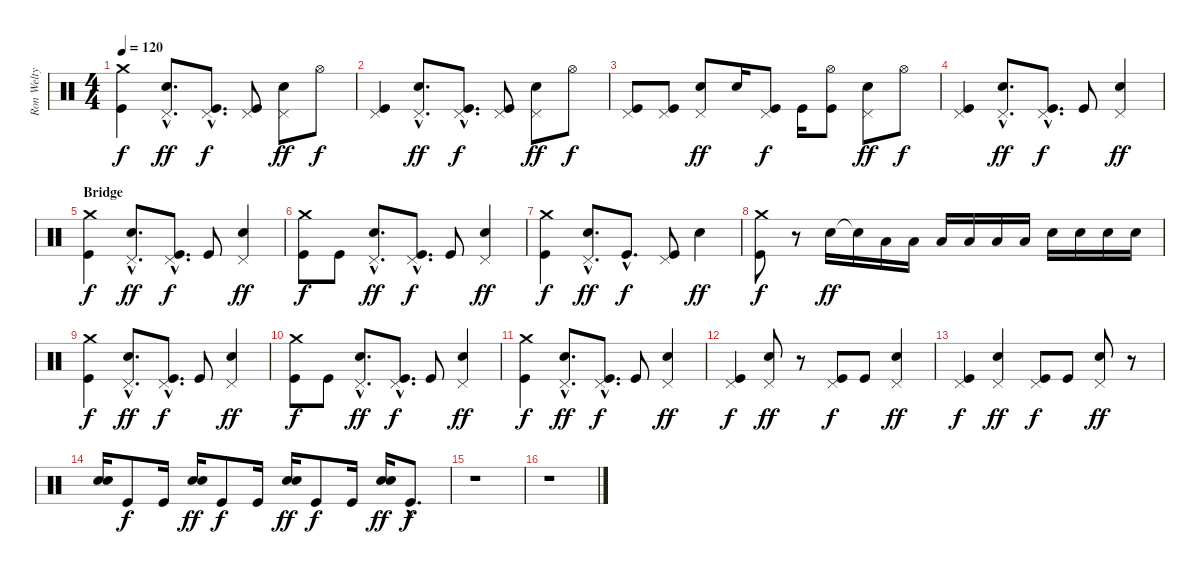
\track ("Ron Welty" "Ron Welty") {instrument percussion}
\staff {score}
\articulation defaults
\ts (4 4)
\tempo 120
\clef neutral
\ks c
("Crash medium (hit)" "Kick (hit)").4{dy f} ("Pedal Hi-Hat (hit)"{hac} "Snare (hit) 2"{hac}).8{d dy ff} ("Pedal Hi-Hat (hit)"{hac} "Kick (hit)"{hac}).8{d dy f} ("Pedal Hi-Hat (hit)" "Kick (hit)").8 ("Pedal Hi-Hat (hit)" "Snare (hit) 2").8{dy ff} "Hi-Hat (open)".8{dy f} |
("Pedal Hi-Hat (hit)" "Kick (hit)").4 ("Pedal Hi-Hat (hit)"{hac} "Snare (hit) 2"{hac}).8{d dy ff} ("Pedal Hi-Hat (hit)"{hac} "Kick (hit)"{hac}).8{d dy f} ("Pedal Hi-Hat (hit)" "Kick (hit)").8 ("Pedal Hi-Hat (hit)" "Snare (hit) 2").8{dy ff} "Hi-Hat (open)".8{dy f} |
("Pedal Hi-Hat (hit)" "Kick (hit)").8 ("Pedal Hi-Hat (hit)" "Kick (hit)").8 ("Pedal Hi-Hat (hit)" "Snare (hit) 2").8{dy ff} "Snare (hit) 2".16 ("Pedal Hi-Hat (hit)" "Kick (hit)").8{dy f} "Kick (hit)".16 ("Hi-Hat (open)" "Kick (hit)").8 ("Pedal Hi-Hat (hit)" "Snare (hit) 2").8{dy ff} "Hi-Hat (open)".8{dy f} |
("Pedal Hi-Hat (hit)" "Kick (hit)").4 ("Pedal Hi-Hat (hit)"{hac} "Snare (hit) 2"{hac}).8{d dy ff} ("Pedal Hi-Hat (hit)"{hac} "Kick (hit)"{hac}).8{d dy f} "Kick (hit)".8 ("Pedal Hi-Hat (hit)" "Snare (hit) 2").4{dy ff} |
\section ("" "Bridge")
("Crash medium (hit)" "Kick (hit)").4{dy f} ("Pedal Hi-Hat (hit)"{hac} "Snare (hit) 2"{hac}).8{d dy ff} ("Pedal Hi-Hat (hit)"{hac} "Kick (hit)"{hac}).8{d dy f} "Kick (hit)".8 ("Pedal Hi-Hat (hit)" "Snare (hit) 2").4{dy ff} |
("Crash medium (hit)" "Kick (hit)").8{dy f} "Kick (hit)".8 ("Pedal Hi-Hat (hit)"{hac} "Snare (hit) 2"{hac}).8{d dy ff} ("Pedal Hi-Hat (hit)"{hac} "Kick (hit)"{hac}).8{d dy f} "Kick (hit)".8 ("Pedal Hi-Hat (hit)" "Snare (hit) 2").4{dy ff} |
("Crash medium (hit)" "Kick (hit)").4{dy f} ("Pedal Hi-Hat (hit)"{hac} "Snare (hit) 2"{hac}).8{d dy ff} "Kick (hit)"{hac}.8{d dy f} ("Pedal Hi-Hat (hit)" "Kick (hit)").8 "Snare (hit) 2".4{dy ff} |
("Crash medium (hit)" "Kick (hit)").8{dy f} r.8 "Snare (hit) 2".16{dy ff} "Snare (hit) 2"{t}.16 "Low Tom (hit)".16 "Low Tom (hit)".16 "Low Tom (hit)".16 "Low Floor Tom (hit)".16 "Low Floor Tom (hit)".16 "Low Floor Tom (hit)".16 "Snare (hit) 2".16 "Snare (hit) 2".16 "Snare (hit) 2".16 "Snare (hit) 2".16 |
("Crash medium (hit)" "Kick (hit)").4{dy f} ("Pedal Hi-Hat (hit)"{hac} "Snare (hit) 2"{hac}).8{d dy ff} ("Pedal Hi-Hat (hit)"{hac} "Kick (hit)"{hac}).8{d dy f} "Kick (hit)".8 ("Pedal Hi-Hat (hit)" "Snare (hit) 2").4{dy ff} |
("Crash medium (hit)" "Kick (hit)").8{dy f} "Kick (hit)".8 ("Pedal Hi-Hat (hit)"{hac} "Snare (hit) 2"{hac}).8{d dy ff} ("Pedal Hi-Hat (hit)"{hac} "Kick (hit)"{hac}).8{d dy f} "Kick (hit)".8 ("Pedal Hi-Hat (hit)" "Snare (hit) 2").4{dy ff} |
("Crash medium (hit)" "Kick (hit)").4{dy f} ("Pedal Hi-Hat (hit)"{hac} "Snare (hit) 2"{hac}).8{d dy ff} ("Pedal Hi-Hat (hit)"{hac} "Kick (hit)"{hac}).8{d dy f} "Kick (hit)".8 ("Pedal Hi-Hat (hit)" "Snare (hit) 2").4{dy ff} |
("Pedal Hi-Hat (hit)" "Kick (hit)").4{dy f} ("Pedal Hi-Hat (hit)" "Snare (hit) 2").8{dy ff} r.8 ("Pedal Hi-Hat (hit)" "Kick (hit)").8{dy f} "Kick (hit)".8 ("Pedal Hi-Hat (hit)" "Snare (hit) 2").4{dy ff} |
("Pedal Hi-Hat (hit)" "Kick (hit)").4{dy f} ("Pedal Hi-Hat (hit)" "Snare (hit) 2").4{dy ff} ("Pedal Hi-Hat (hit)" "Kick (hit)").8{dy f} "Kick (hit)".8 ("Pedal Hi-Hat (hit)" "Snare (hit) 2").8{dy ff} r.8 |
("Snare (hit) 2" "Snare (hit) 2").16{bd 120} "Kick (hit)".8{dy f} "Kick (hit)".16 ("Snare (hit) 2" "Snare (hit) 2").16{bd 120 dy ff} "Kick (hit)".8{dy f} "Kick (hit)".16 ("Snare (hit) 2" "Snare (hit) 2").16{bd 120 dy ff} "Kick (hit)".8{dy f} "Kick (hit)".16 ("Snare (hit) 2" "Snare (hit) 2").16{bd 120 dy ff} "Kick (hit)"{hac}.8{d dy f} |
r.1 |
r.1
